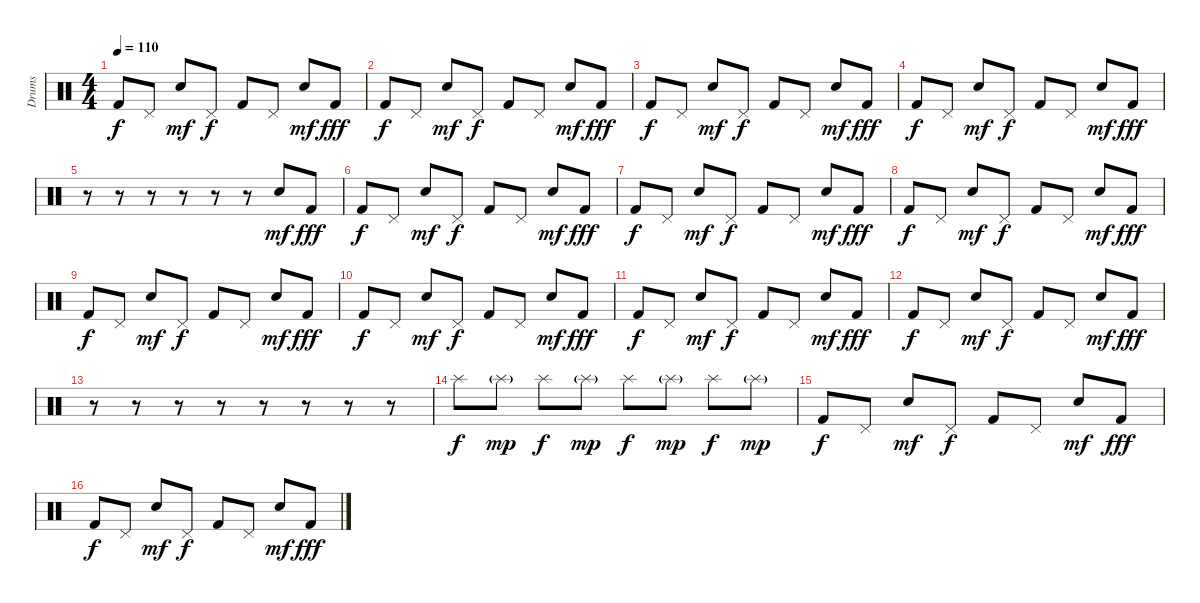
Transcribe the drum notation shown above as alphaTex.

\track ("Drums" "Drums") {instrument percussion}
\staff {score}
\articulation defaults
\ts (4 4)
\tempo 110
\clef neutral
\ks c "Kick (hit) 2".8{dy f} "Pedal Hi-Hat (hit)".8 "Electric Snare (hit)".8{dy mf} "Pedal Hi-Hat (hit)".8{dy f} "Kick (hit) 2".8 "Pedal Hi-Hat (hit)".8 "Electric Snare (hit)".8{dy mf} "Kick (hit) 2".8{dy fff}
|
"Kick (hit) 2".8{dy f} "Pedal Hi-Hat (hit)".8 "Electric Snare (hit)".8{dy mf} "Pedal Hi-Hat (hit)".8{dy f} "Kick (hit) 2".8 "Pedal Hi-Hat (hit)".8 "Electric Snare (hit)".8{dy mf} "Kick (hit) 2".8{dy fff} |
"Kick (hit) 2".8{dy f} "Pedal Hi-Hat (hit)".8 "Electric Snare (hit)".8{dy mf} "Pedal Hi-Hat (hit)".8{dy f} "Kick (hit) 2".8 "Pedal Hi-Hat (hit)".8 "Electric Snare (hit)".8{dy mf} "Kick (hit) 2".8{dy fff} |
"Kick (hit) 2".8{dy f} "Pedal Hi-Hat (hit)".8 "Electric Snare (hit)".8{dy mf} "Pedal Hi-Hat (hit)".8{dy f} "Kick (hit) 2".8 "Pedal Hi-Hat (hit)".8 "Electric Snare (hit)".8{dy mf} "Kick (hit) 2".8{dy fff} |
r.8 r.8 r.8 r.8 r.8 r.8 "Electric Snare (hit)".8{dy mf} "Kick (hit) 2".8{dy fff} |
"Kick (hit) 2".8{dy f} "Pedal Hi-Hat (hit)".8 "Electric Snare (hit)".8{dy mf} "Pedal Hi-Hat (hit)".8{dy f} "Kick (hit) 2".8 "Pedal Hi-Hat (hit)".8 "Electric Snare (hit)".8{dy mf} "Kick (hit) 2".8{dy fff} |
"Kick (hit) 2".8{dy f} "Pedal Hi-Hat (hit)".8 "Electric Snare (hit)".8{dy mf} "Pedal Hi-Hat (hit)".8{dy f} "Kick (hit) 2".8 "Pedal Hi-Hat (hit)".8 "Electric Snare (hit)".8{dy mf} "Kick (hit) 2".8{dy fff} |
"Kick (hit) 2".8{dy f} "Pedal Hi-Hat (hit)".8 "Electric Snare (hit)".8{dy mf} "Pedal Hi-Hat (hit)".8{dy f} "Kick (hit) 2".8 "Pedal Hi-Hat (hit)".8 "Electric Snare (hit)".8{dy mf} "Kick (hit) 2".8{dy fff} |
"Kick (hit) 2".8{dy f} "Pedal Hi-Hat (hit)".8 "Electric Snare (hit)".8{dy mf} "Pedal Hi-Hat (hit)".8{dy f} "Kick (hit) 2".8 "Pedal Hi-Hat (hit)".8 "Electric Snare (hit)".8{dy mf} "Kick (hit) 2".8{dy fff} |
"Kick (hit) 2".8{dy f} "Pedal Hi-Hat (hit)".8 "Electric Snare (hit)".8{dy mf} "Pedal Hi-Hat (hit)".8{dy f} "Kick (hit) 2".8 "Pedal Hi-Hat (hit)".8 "Electric Snare (hit)".8{dy mf} "Kick (hit) 2".8{dy fff} |
"Kick (hit) 2".8{dy f} "Pedal Hi-Hat (hit)".8 "Electric Snare (hit)".8{dy mf} "Pedal Hi-Hat (hit)".8{dy f} "Kick (hit) 2".8 "Pedal Hi-Hat (hit)".8 "Electric Snare (hit)".8{dy mf} "Kick (hit) 2".8{dy fff} |
"Kick (hit) 2".8{dy f} "Pedal Hi-Hat (hit)".8 "Electric Snare (hit)".8{dy mf} "Pedal Hi-Hat (hit)".8{dy f} "Kick (hit) 2".8 "Pedal Hi-Hat (hit)".8 "Electric Snare (hit)".8{dy mf} "Kick (hit) 2".8{dy fff} |
r.8 r.8 r.8 r.8 r.8 r.8 r.8 r.8{volume 0} |
"Splash (hit)".8{dy f volume 12} "Splash (hit)"{g}.8{dy mp} "Splash (hit)".8{dy f} "Splash (hit)"{g}.8{dy mp} "Splash (hit)".8{dy f} "Splash (hit)"{g}.8{dy mp} "Splash (hit)".8{dy f} "Splash (hit)"{g}.8{dy mp} |
"Kick (hit) 2".8{dy f} "Pedal Hi-Hat (hit)".8 "Electric Snare (hit)".8{dy mf} "Pedal Hi-Hat (hit)".8{dy f} "Kick (hit) 2".8 "Pedal Hi-Hat (hit)".8 "Electric Snare (hit)".8{dy mf} "Kick (hit) 2".8{dy fff} |
"Kick (hit) 2".8{dy f} "Pedal Hi-Hat (hit)".8 "Electric Snare (hit)".8{dy mf} "Pedal Hi-Hat (hit)".8{dy f} "Kick (hit) 2".8 "Pedal Hi-Hat (hit)".8 "Electric Snare (hit)".8{dy mf} "Kick (hit) 2".8{dy fff}
